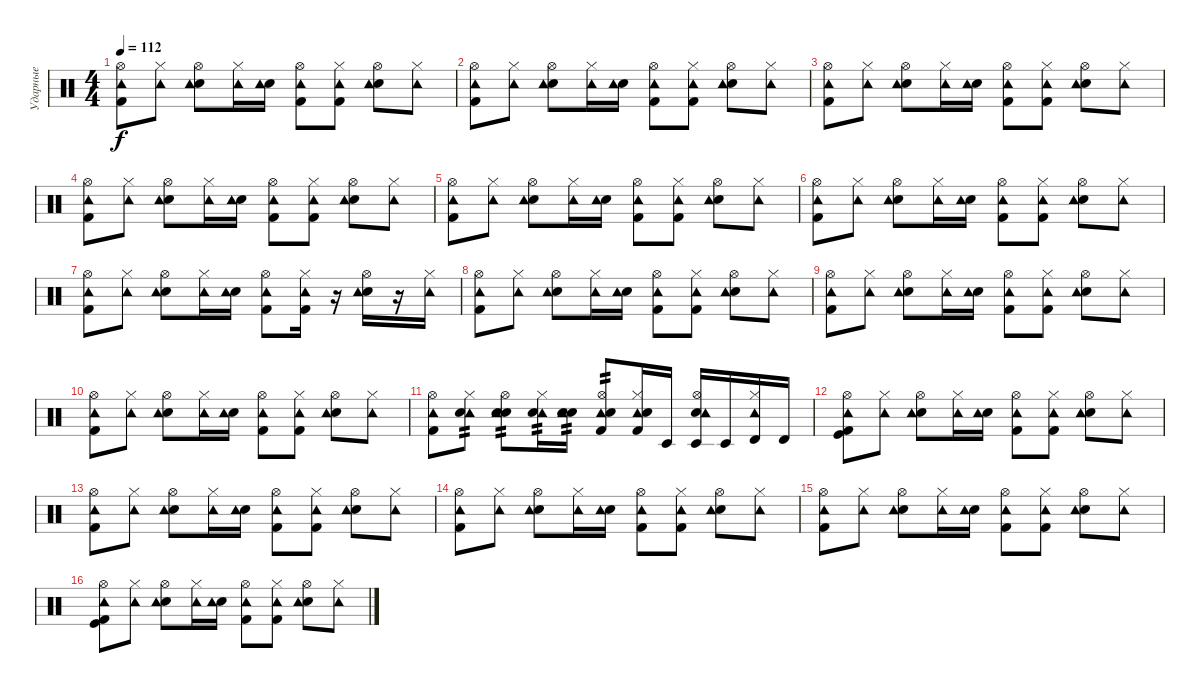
\track ("Ударные" "Ударные") {instrument percussion}
\staff {score}
\articulation defaults
\ts (4 4)
\tempo 112
\clef neutral
\ks c
("Hi-Hat (open)" "Kick (hit) 2" "Tambourine (hit)").8{dy f} ("Hi-Hat (closed)" "Tambourine (hit)").8 ("Hi-Hat (open)" "Electric Snare (hit)" "Tambourine (hit)").8 ("Hi-Hat (closed)" "Tambourine (hit)").16 ("Electric Snare (hit)" "Tambourine (hit)").16 ("Hi-Hat (open)" "Kick (hit) 2" "Tambourine (hit)").8 ("Hi-Hat (closed)" "Kick (hit) 2" "Tambourine (hit)").8 ("Hi-Hat (open)" "Electric Snare (hit)" "Tambourine (hit)").8 ("Hi-Hat (closed)" "Tambourine (hit)").8 |
("Hi-Hat (open)" "Kick (hit) 2" "Tambourine (hit)").8 ("Hi-Hat (closed)" "Tambourine (hit)").8 ("Hi-Hat (open)" "Electric Snare (hit)" "Tambourine (hit)").8 ("Hi-Hat (closed)" "Tambourine (hit)").16 ("Electric Snare (hit)" "Tambourine (hit)").16 ("Hi-Hat (open)" "Kick (hit) 2" "Tambourine (hit)").8 ("Hi-Hat (closed)" "Kick (hit) 2" "Tambourine (hit)").8 ("Hi-Hat (open)" "Electric Snare (hit)" "Tambourine (hit)").8 ("Hi-Hat (closed)" "Tambourine (hit)").8 |
("Hi-Hat (open)" "Kick (hit) 2" "Tambourine (hit)").8 ("Hi-Hat (closed)" "Tambourine (hit)").8 ("Hi-Hat (open)" "Electric Snare (hit)" "Tambourine (hit)").8 ("Hi-Hat (closed)" "Tambourine (hit)").16 ("Electric Snare (hit)" "Tambourine (hit)").16 ("Hi-Hat (open)" "Kick (hit) 2" "Tambourine (hit)").8 ("Hi-Hat (closed)" "Kick (hit) 2" "Tambourine (hit)").8 ("Hi-Hat (open)" "Electric Snare (hit)" "Tambourine (hit)").8 ("Hi-Hat (closed)" "Tambourine (hit)").8 |
("Hi-Hat (open)" "Kick (hit) 2" "Tambourine (hit)").8 ("Hi-Hat (closed)" "Tambourine (hit)").8 ("Hi-Hat (open)" "Electric Snare (hit)" "Tambourine (hit)").8 ("Hi-Hat (closed)" "Tambourine (hit)").16 ("Electric Snare (hit)" "Tambourine (hit)").16 ("Hi-Hat (open)" "Kick (hit) 2" "Tambourine (hit)").8 ("Hi-Hat (closed)" "Kick (hit) 2" "Tambourine (hit)").8 ("Hi-Hat (open)" "Electric Snare (hit)" "Tambourine (hit)").8 ("Hi-Hat (closed)" "Tambourine (hit)").8 |
("Hi-Hat (open)" "Kick (hit) 2" "Tambourine (hit)").8 ("Hi-Hat (closed)" "Tambourine (hit)").8 ("Hi-Hat (open)" "Electric Snare (hit)" "Tambourine (hit)").8 ("Hi-Hat (closed)" "Tambourine (hit)").16 ("Electric Snare (hit)" "Tambourine (hit)").16 ("Hi-Hat (open)" "Kick (hit) 2" "Tambourine (hit)").8 ("Hi-Hat (closed)" "Kick (hit) 2" "Tambourine (hit)").8 ("Hi-Hat (open)" "Electric Snare (hit)" "Tambourine (hit)").8 ("Hi-Hat (closed)" "Tambourine (hit)").8 |
("Hi-Hat (open)" "Kick (hit) 2" "Tambourine (hit)").8 ("Hi-Hat (closed)" "Tambourine (hit)").8 ("Hi-Hat (open)" "Electric Snare (hit)" "Tambourine (hit)").8 ("Hi-Hat (closed)" "Tambourine (hit)").16 ("Electric Snare (hit)" "Tambourine (hit)").16 ("Hi-Hat (open)" "Kick (hit) 2" "Tambourine (hit)").8 ("Hi-Hat (closed)" "Kick (hit) 2" "Tambourine (hit)").8 ("Hi-Hat (open)" "Electric Snare (hit)" "Tambourine (hit)").8 ("Hi-Hat (closed)" "Tambourine (hit)").8 |
("Hi-Hat (open)" "Kick (hit) 2" "Tambourine (hit)").8 ("Hi-Hat (closed)" "Tambourine (hit)").8 ("Hi-Hat (open)" "Electric Snare (hit)" "Tambourine (hit)").8 ("Hi-Hat (closed)" "Tambourine (hit)").16 ("Electric Snare (hit)" "Tambourine (hit)").16 ("Hi-Hat (open)" "Kick (hit) 2" "Tambourine (hit)").8 ("Hi-Hat (closed)" "Kick (hit) 2" "Tambourine (hit)").16 r.16 ("Hi-Hat (open)" "Electric Snare (hit)" "Tambourine (hit)").16 r.16 ("Hi-Hat (closed)" "Tambourine (hit)").16 |
("Hi-Hat (open)" "Kick (hit) 2" "Tambourine (hit)").8 ("Hi-Hat (closed)" "Tambourine (hit)").8 ("Hi-Hat (open)" "Electric Snare (hit)" "Tambourine (hit)").8 ("Hi-Hat (closed)" "Tambourine (hit)").16 ("Electric Snare (hit)" "Tambourine (hit)").16 ("Hi-Hat (open)" "Kick (hit) 2" "Tambourine (hit)").8 ("Hi-Hat (closed)" "Kick (hit) 2" "Tambourine (hit)").8 ("Hi-Hat (open)" "Electric Snare (hit)" "Tambourine (hit)").8 ("Hi-Hat (closed)" "Tambourine (hit)").8 |
("Hi-Hat (open)" "Kick (hit) 2" "Tambourine (hit)").8 ("Hi-Hat (closed)" "Tambourine (hit)").8 ("Hi-Hat (open)" "Electric Snare (hit)" "Tambourine (hit)").8 ("Hi-Hat (closed)" "Tambourine (hit)").16 ("Electric Snare (hit)" "Tambourine (hit)").16 ("Hi-Hat (open)" "Kick (hit) 2" "Tambourine (hit)").8 ("Hi-Hat (closed)" "Kick (hit) 2" "Tambourine (hit)").8 ("Hi-Hat (open)" "Electric Snare (hit)" "Tambourine (hit)").8 ("Hi-Hat (closed)" "Tambourine (hit)").8 |
("Hi-Hat (open)" "Kick (hit) 2" "Tambourine (hit)").8 ("Hi-Hat (closed)" "Tambourine (hit)").8 ("Hi-Hat (open)" "Electric Snare (hit)" "Tambourine (hit)").8 ("Hi-Hat (closed)" "Tambourine (hit)").16 ("Electric Snare (hit)" "Tambourine (hit)").16 ("Hi-Hat (open)" "Kick (hit) 2" "Tambourine (hit)").8 ("Hi-Hat (closed)" "Kick (hit) 2" "Tambourine (hit)").8 ("Hi-Hat (open)" "Electric Snare (hit)" "Tambourine (hit)").8 ("Hi-Hat (closed)" "Tambourine (hit)").8 |
("Hi-Hat (open)" "Kick (hit) 2" "Tambourine (hit)").8 ("Hi-Hat (closed)" "Tambourine (hit)" "Electric Snare (hit)").8{tp 2} ("Hi-Hat (open)" "Electric Snare (hit)" "Tambourine (hit)" "Electric Snare (hit)").8{tp 2} ("Hi-Hat (closed)" "Tambourine (hit)" "Electric Snare (hit)").16{tp 2} ("Electric Snare (hit)" "Tambourine (hit)" "Electric Snare (hit)").16{tp 2} ("Hi-Hat (open)" "Kick (hit) 2" "Tambourine (hit)" "Electric Snare (hit)").8{tp 2} ("Hi-Hat (closed)" "Kick (hit) 2" "Tambourine (hit)" "Electric Snare (hit)").16 "Timbale low (hit)".16 ("Hi-Hat (open)" "Electric Snare (hit)" "Tambourine (hit)" "Timbale low (hit)").16 "Timbale low (hit)".16 ("Hi-Hat (closed)" "Tambourine (hit)" "Timbale high (hit)").16 "Timbale high (hit)".16 |
("Hi-Hat (open)" "Kick (hit) 2" "Tambourine (hit)" "Kick (hit)").8 ("Hi-Hat (closed)" "Tambourine (hit)").8 ("Hi-Hat (open)" "Electric Snare (hit)" "Tambourine (hit)").8 ("Hi-Hat (closed)" "Tambourine (hit)").16 ("Electric Snare (hit)" "Tambourine (hit)").16 ("Hi-Hat (open)" "Kick (hit) 2" "Tambourine (hit)").8 ("Hi-Hat (closed)" "Kick (hit) 2" "Tambourine (hit)").8 ("Hi-Hat (open)" "Electric Snare (hit)" "Tambourine (hit)").8 ("Hi-Hat (closed)" "Tambourine (hit)").8 |
("Hi-Hat (open)" "Kick (hit) 2" "Tambourine (hit)").8 ("Hi-Hat (closed)" "Tambourine (hit)").8 ("Hi-Hat (open)" "Electric Snare (hit)" "Tambourine (hit)").8 ("Hi-Hat (closed)" "Tambourine (hit)").16 ("Electric Snare (hit)" "Tambourine (hit)").16 ("Hi-Hat (open)" "Kick (hit) 2" "Tambourine (hit)").8 ("Hi-Hat (closed)" "Kick (hit) 2" "Tambourine (hit)").8 ("Hi-Hat (open)" "Electric Snare (hit)" "Tambourine (hit)").8 ("Hi-Hat (closed)" "Tambourine (hit)").8 |
("Hi-Hat (open)" "Kick (hit) 2" "Tambourine (hit)").8 ("Hi-Hat (closed)" "Tambourine (hit)").8 ("Hi-Hat (open)" "Electric Snare (hit)" "Tambourine (hit)").8 ("Hi-Hat (closed)" "Tambourine (hit)").16 ("Electric Snare (hit)" "Tambourine (hit)").16 ("Hi-Hat (open)" "Kick (hit) 2" "Tambourine (hit)").8 ("Hi-Hat (closed)" "Kick (hit) 2" "Tambourine (hit)").8 ("Hi-Hat (open)" "Electric Snare (hit)" "Tambourine (hit)").8 ("Hi-Hat (closed)" "Tambourine (hit)").8 |
("Hi-Hat (open)" "Kick (hit) 2" "Tambourine (hit)").8 ("Hi-Hat (closed)" "Tambourine (hit)").8 ("Hi-Hat (open)" "Electric Snare (hit)" "Tambourine (hit)").8 ("Hi-Hat (closed)" "Tambourine (hit)").16 ("Electric Snare (hit)" "Tambourine (hit)").16 ("Hi-Hat (open)" "Kick (hit) 2" "Tambourine (hit)").8 ("Hi-Hat (closed)" "Kick (hit) 2" "Tambourine (hit)").8 ("Hi-Hat (open)" "Electric Snare (hit)" "Tambourine (hit)").8 ("Hi-Hat (closed)" "Tambourine (hit)").8 |
("Hi-Hat (open)" "Kick (hit) 2" "Tambourine (hit)" "Kick (hit)").8 ("Hi-Hat (closed)" "Tambourine (hit)").8 ("Hi-Hat (open)" "Electric Snare (hit)" "Tambourine (hit)").8 ("Hi-Hat (closed)" "Tambourine (hit)").16 ("Electric Snare (hit)" "Tambourine (hit)").16 ("Hi-Hat (open)" "Kick (hit) 2" "Tambourine (hit)").8 ("Hi-Hat (closed)" "Kick (hit) 2" "Tambourine (hit)").8 ("Hi-Hat (open)" "Electric Snare (hit)" "Tambourine (hit)").8 ("Hi-Hat (closed)" "Tambourine (hit)").8
